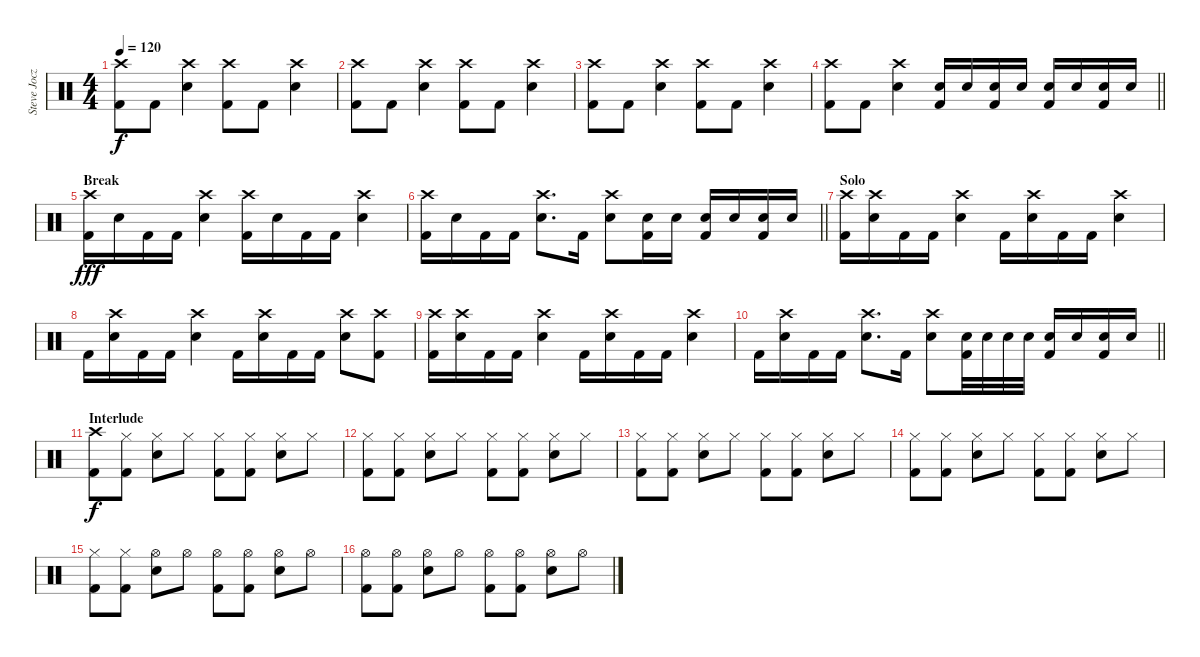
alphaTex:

\track ("Steve Jocz" "Steve Jocz") {instrument percussion}
\staff {score}
\articulation defaults
\ts (4 4)
\tempo 120
\clef neutral
\ks c
("Crash high (hit)" "Kick (hit) 2").8{dy f} "Kick (hit) 2".8 ("Crash high (hit)" "Snare (hit) 2").4 ("Crash high (hit)" "Kick (hit) 2").8 "Kick (hit) 2".8 ("Crash high (hit)" "Snare (hit) 2").4 |
("Crash high (hit)" "Kick (hit) 2").8 "Kick (hit) 2".8 ("Crash high (hit)" "Snare (hit) 2").4 ("Crash high (hit)" "Kick (hit) 2").8 "Kick (hit) 2".8 ("Crash high (hit)" "Snare (hit) 2").4 |
("Crash high (hit)" "Kick (hit) 2").8 "Kick (hit) 2".8 ("Crash high (hit)" "Snare (hit) 2").4 ("Crash high (hit)" "Kick (hit) 2").8 "Kick (hit) 2".8 ("Crash high (hit)" "Snare (hit) 2").4 |
\barLineRight lightlight
("Crash high (hit)" "Kick (hit) 2").8 "Kick (hit) 2".8 ("Crash high (hit)" "Snare (hit) 2").4 ("Snare (hit) 2" "Kick (hit) 2").16 "Snare (hit) 2".16 ("Snare (hit) 2" "Kick (hit) 2").16 "Snare (hit) 2".16 ("Snare (hit) 2" "Kick (hit) 2").16 "Snare (hit) 2".16 ("Snare (hit) 2" "Kick (hit) 2").16 "Snare (hit) 2".16 |
\section ("" "Break")
("Crash high (hit)" "Kick (hit) 2").16{dy fff} "Snare (hit) 2".16 "Kick (hit) 2".16 "Kick (hit) 2".16 ("Crash high (hit)" "Snare (hit) 2").4 ("Crash high (hit)" "Kick (hit) 2").16 "Snare (hit) 2".16 "Kick (hit) 2".16 "Kick (hit) 2".16 ("Crash high (hit)" "Snare (hit) 2").4 |
\barLineRight lightlight
("Crash high (hit)" "Kick (hit) 2").16 "Snare (hit) 2".16 "Kick (hit) 2".16 "Kick (hit) 2".16 ("Crash high (hit)" "Snare (hit) 2").8{d} "Kick (hit) 2".16 ("Crash high (hit)" "Snare (hit) 2").8 ("Snare (hit) 2" "Kick (hit) 2").16 "Snare (hit) 2".16 ("Snare (hit) 2" "Kick (hit) 2").16 "Snare (hit) 2".16 ("Snare (hit) 2" "Kick (hit) 2").16 "Snare (hit) 2".16 |
\section ("" "Solo")
("Crash high (hit)" "Kick (hit) 2").16 ("Crash high (hit)" "Snare (hit) 2").16 "Kick (hit) 2".16 "Kick (hit) 2".16 ("Crash high (hit)" "Snare (hit) 2").4 "Kick (hit) 2".16 ("Crash high (hit)" "Snare (hit) 2").16 "Kick (hit) 2".16 "Kick (hit) 2".16 ("Crash high (hit)" "Snare (hit) 2").4 |
"Kick (hit) 2".16 ("Crash high (hit)" "Snare (hit) 2").16 "Kick (hit) 2".16 "Kick (hit) 2".16 ("Crash high (hit)" "Snare (hit) 2").4 "Kick (hit) 2".16 ("Crash high (hit)" "Snare (hit) 2").16 "Kick (hit) 2".16 "Kick (hit) 2".16 ("Crash high (hit)" "Snare (hit) 2").8 ("Crash high (hit)" "Kick (hit) 2").8 |
("Crash high (hit)" "Kick (hit) 2").16 ("Crash high (hit)" "Snare (hit) 2").16 "Kick (hit) 2".16 "Kick (hit) 2".16 ("Crash high (hit)" "Snare (hit) 2").4 "Kick (hit) 2".16 ("Crash high (hit)" "Snare (hit) 2").16 "Kick (hit) 2".16 "Kick (hit) 2".16 ("Crash high (hit)" "Snare (hit) 2").4 |
\barLineRight lightlight "Kick (hit) 2".16
("Crash high (hit)" "Snare (hit) 2").16 "Kick (hit) 2".16 "Kick (hit) 2".16 ("Crash high (hit)" "Snare (hit) 2").8{d} "Kick (hit) 2".16 ("Crash high (hit)" "Snare (hit) 2").8 ("Snare (hit) 2" "Kick (hit) 2").32 "Snare (hit) 2".32 "Snare (hit) 2".32 "Snare (hit) 2".32 ("Snare (hit) 2" "Kick (hit) 2").16 "Snare (hit) 2".16 ("Snare (hit) 2" "Kick (hit) 2").16 "Snare (hit) 2".16 |
\section ("" "Interlude")
("Crash high (hit)" "Kick (hit) 2").8{dy f} ("Hi-Hat (closed)" "Kick (hit) 2").8 ("Hi-Hat (closed)" "Snare (hit) 2").8 "Hi-Hat (closed)".8 ("Hi-Hat (closed)" "Kick (hit) 2").8 ("Hi-Hat (closed)" "Kick (hit) 2").8 ("Hi-Hat (closed)" "Snare (hit) 2").8 "Hi-Hat (closed)".8 |
("Hi-Hat (closed)" "Kick (hit) 2").8 ("Hi-Hat (closed)" "Kick (hit) 2").8 ("Hi-Hat (closed)" "Snare (hit) 2").8 "Hi-Hat (closed)".8 ("Hi-Hat (closed)" "Kick (hit) 2").8 ("Hi-Hat (closed)" "Kick (hit) 2").8 ("Hi-Hat (closed)" "Snare (hit) 2").8 "Hi-Hat (closed)".8 |
("Hi-Hat (closed)" "Kick (hit) 2").8 ("Hi-Hat (closed)" "Kick (hit) 2").8 ("Hi-Hat (closed)" "Snare (hit) 2").8 "Hi-Hat (closed)".8 ("Hi-Hat (closed)" "Kick (hit) 2").8 ("Hi-Hat (closed)" "Kick (hit) 2").8 ("Hi-Hat (closed)" "Snare (hit) 2").8 "Hi-Hat (closed)".8 |
("Hi-Hat (closed)" "Kick (hit) 2").8 ("Hi-Hat (closed)" "Kick (hit) 2").8 ("Hi-Hat (closed)" "Snare (hit) 2").8 "Hi-Hat (closed)".8 ("Hi-Hat (closed)" "Kick (hit) 2").8 ("Hi-Hat (closed)" "Kick (hit) 2").8 ("Hi-Hat (closed)" "Snare (hit) 2").8 "Hi-Hat (closed)".8 |
("Hi-Hat (closed)" "Kick (hit) 2").8 ("Hi-Hat (closed)" "Kick (hit) 2").8 ("Hi-Hat (open)" "Snare (hit) 2").8 "Hi-Hat (open)".8 ("Hi-Hat (open)" "Kick (hit) 2").8 ("Hi-Hat (open)" "Kick (hit) 2").8 ("Hi-Hat (open)" "Snare (hit) 2").8 "Hi-Hat (open)".8 |
("Hi-Hat (open)" "Kick (hit) 2").8 ("Hi-Hat (open)" "Kick (hit) 2").8 ("Hi-Hat (open)" "Snare (hit) 2").8 "Hi-Hat (open)".8 ("Hi-Hat (open)" "Kick (hit) 2").8 ("Hi-Hat (open)" "Kick (hit) 2").8 ("Hi-Hat (open)" "Snare (hit) 2").8 "Hi-Hat (open)".8
